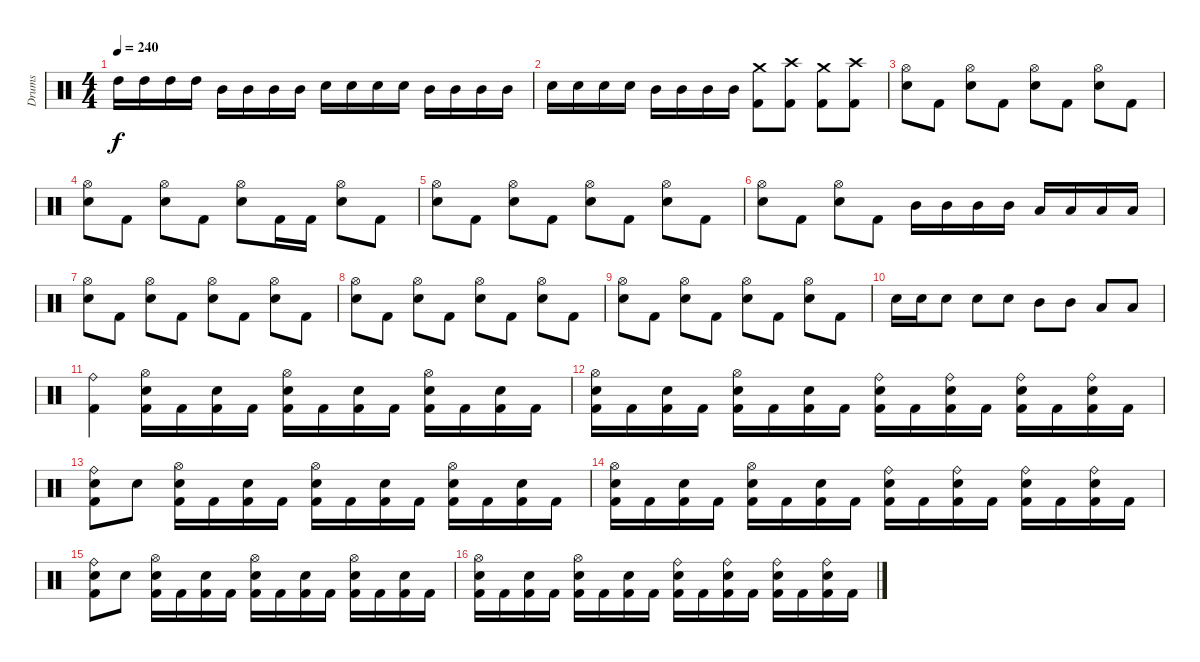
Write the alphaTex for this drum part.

\track ("Drums" "Drums") {instrument percussion}
\staff {score}
\articulation defaults
\ts (4 4)
\tempo 240
\clef neutral
\ks c "High Tom (hit)".16{dy f} "High Tom (hit)".16 "High Tom (hit)".16 "High Tom (hit)".16 "Mid Tom (hit)".16 "Mid Tom (hit)".16 "Mid Tom (hit)".16 "Mid Tom (hit)".16 "Snare (hit) 2".16 "Snare (hit) 2".16 "Snare (hit) 2".16 "Snare (hit) 2".16 "Mid Tom (hit)".16 "Mid Tom (hit)".16 "Mid Tom (hit)".16 "Mid Tom (hit)".16
|
"Snare (hit) 2".16 "Snare (hit) 2".16 "Snare (hit) 2".16 "Snare (hit) 2".16 "Mid Tom (hit)".16 "Mid Tom (hit)".16 "Mid Tom (hit)".16 "Mid Tom (hit)".16 ("Crash medium (hit)" "Kick (hit) 2").8 ("Crash high (hit)" "Kick (hit) 2").8 ("Crash medium (hit)" "Kick (hit) 2").8 ("Crash high (hit)" "Kick (hit) 2").8 |
("Hi-Hat (open)" "Snare (hit) 2").8 "Kick (hit) 2".8 ("Hi-Hat (open)" "Snare (hit) 2").8 "Kick (hit) 2".8 ("Hi-Hat (open)" "Snare (hit) 2").8 "Kick (hit) 2".8 ("Hi-Hat (open)" "Snare (hit) 2").8 "Kick (hit) 2".8 |
("Hi-Hat (open)" "Snare (hit) 2").8 "Kick (hit) 2".8 ("Hi-Hat (open)" "Snare (hit) 2").8 "Kick (hit) 2".8 ("Hi-Hat (open)" "Snare (hit) 2").8 "Kick (hit) 2".16 "Kick (hit) 2".16 ("Hi-Hat (open)" "Snare (hit) 2").8 "Kick (hit) 2".8 |
("Hi-Hat (open)" "Snare (hit) 2").8 "Kick (hit) 2".8 ("Hi-Hat (open)" "Snare (hit) 2").8 "Kick (hit) 2".8 ("Hi-Hat (open)" "Snare (hit) 2").8 "Kick (hit) 2".8 ("Hi-Hat (open)" "Snare (hit) 2").8 "Kick (hit) 2".8 |
("Hi-Hat (open)" "Snare (hit) 2").8 "Kick (hit) 2".8 ("Hi-Hat (open)" "Snare (hit) 2").8 "Kick (hit) 2".8 "Mid Tom (hit)".16 "Mid Tom (hit)".16 "Mid Tom (hit)".16 "Mid Tom (hit)".16 "Low Tom (hit)".16 "Low Tom (hit)".16 "Low Tom (hit)".16 "Low Tom (hit)".16 |
("Hi-Hat (open)" "Snare (hit) 2").8 "Kick (hit) 2".8 ("Hi-Hat (open)" "Snare (hit) 2").8 "Kick (hit) 2".8 ("Hi-Hat (open)" "Snare (hit) 2").8 "Kick (hit) 2".8 ("Hi-Hat (open)" "Snare (hit) 2").8 "Kick (hit) 2".8 |
("Hi-Hat (open)" "Snare (hit) 2").8 "Kick (hit) 2".8 ("Hi-Hat (open)" "Snare (hit) 2").8 "Kick (hit) 2".8 ("Hi-Hat (open)" "Snare (hit) 2").8 "Kick (hit) 2".8 ("Hi-Hat (open)" "Snare (hit) 2").8 "Kick (hit) 2".8 |
("Hi-Hat (open)" "Snare (hit) 2").8 "Kick (hit) 2".8 ("Hi-Hat (open)" "Snare (hit) 2").8 "Kick (hit) 2".8 ("Hi-Hat (open)" "Snare (hit) 2").8 "Kick (hit) 2".8 ("Hi-Hat (open)" "Snare (hit) 2").8 "Kick (hit) 2".8 |
"Snare (hit) 2".16 "Snare (hit) 2".16 "Snare (hit) 2".8 "Snare (hit) 2".8 "Snare (hit) 2".8 "Mid Tom (hit)".8 "Mid Tom (hit)".8 "Low Tom (hit)".8 "Low Tom (hit)".8 |
("Ride (bell)" "Kick (hit) 2").4 ("Hi-Hat (open)" "Snare (hit) 2" "Kick (hit) 2").16 "Kick (hit) 2".16 ("Snare (hit) 2" "Kick (hit) 2").16 "Kick (hit) 2".16 ("Hi-Hat (open)" "Snare (hit) 2" "Kick (hit) 2").16 "Kick (hit) 2".16 ("Snare (hit) 2" "Kick (hit) 2").16 "Kick (hit) 2".16 ("Hi-Hat (open)" "Snare (hit) 2" "Kick (hit) 2").16 "Kick (hit) 2".16 ("Snare (hit) 2" "Kick (hit) 2").16 "Kick (hit) 2".16 |
("Hi-Hat (open)" "Snare (hit) 2" "Kick (hit) 2").16 "Kick (hit) 2".16 ("Snare (hit) 2" "Kick (hit) 2").16 "Kick (hit) 2".16 ("Hi-Hat (open)" "Snare (hit) 2" "Kick (hit) 2").16 "Kick (hit) 2".16 ("Snare (hit) 2" "Kick (hit) 2").16 "Kick (hit) 2".16 ("Ride (bell)" "Snare (hit) 2" "Kick (hit) 2").16 "Kick (hit) 2".16 ("Ride (bell)" "Snare (hit) 2" "Kick (hit) 2").16 "Kick (hit) 2".16 ("Ride (bell)" "Snare (hit) 2" "Kick (hit) 2").16 "Kick (hit) 2".16 ("Ride (bell)" "Snare (hit) 2" "Kick (hit) 2").16 "Kick (hit) 2".16 |
("Ride (bell)" "Snare (hit) 2" "Kick (hit) 2").8 "Snare (hit) 2".8 ("Hi-Hat (open)" "Snare (hit) 2" "Kick (hit) 2").16 "Kick (hit) 2".16 ("Snare (hit) 2" "Kick (hit) 2").16 "Kick (hit) 2".16 ("Hi-Hat (open)" "Snare (hit) 2" "Kick (hit) 2").16 "Kick (hit) 2".16 ("Snare (hit) 2" "Kick (hit) 2").16 "Kick (hit) 2".16 ("Hi-Hat (open)" "Snare (hit) 2" "Kick (hit) 2").16 "Kick (hit) 2".16 ("Snare (hit) 2" "Kick (hit) 2").16 "Kick (hit) 2".16 |
("Hi-Hat (open)" "Snare (hit) 2" "Kick (hit) 2").16 "Kick (hit) 2".16 ("Snare (hit) 2" "Kick (hit) 2").16 "Kick (hit) 2".16 ("Hi-Hat (open)" "Snare (hit) 2" "Kick (hit) 2").16 "Kick (hit) 2".16 ("Snare (hit) 2" "Kick (hit) 2").16 "Kick (hit) 2".16 ("Ride (bell)" "Snare (hit) 2" "Kick (hit) 2").16 "Kick (hit) 2".16 ("Ride (bell)" "Snare (hit) 2" "Kick (hit) 2").16 "Kick (hit) 2".16 ("Ride (bell)" "Snare (hit) 2" "Kick (hit) 2").16 "Kick (hit) 2".16 ("Ride (bell)" "Snare (hit) 2" "Kick (hit) 2").16 "Kick (hit) 2".16 |
("Ride (bell)" "Snare (hit) 2" "Kick (hit) 2").8 "Snare (hit) 2".8 ("Hi-Hat (open)" "Snare (hit) 2" "Kick (hit) 2").16 "Kick (hit) 2".16 ("Snare (hit) 2" "Kick (hit) 2").16 "Kick (hit) 2".16 ("Hi-Hat (open)" "Snare (hit) 2" "Kick (hit) 2").16 "Kick (hit) 2".16 ("Snare (hit) 2" "Kick (hit) 2").16 "Kick (hit) 2".16 ("Hi-Hat (open)" "Snare (hit) 2" "Kick (hit) 2").16 "Kick (hit) 2".16 ("Snare (hit) 2" "Kick (hit) 2").16 "Kick (hit) 2".16 |
("Hi-Hat (open)" "Snare (hit) 2" "Kick (hit) 2").16 "Kick (hit) 2".16 ("Snare (hit) 2" "Kick (hit) 2").16 "Kick (hit) 2".16 ("Hi-Hat (open)" "Snare (hit) 2" "Kick (hit) 2").16 "Kick (hit) 2".16 ("Snare (hit) 2" "Kick (hit) 2").16 "Kick (hit) 2".16 ("Ride (bell)" "Snare (hit) 2" "Kick (hit) 2").16 "Kick (hit) 2".16 ("Ride (bell)" "Snare (hit) 2" "Kick (hit) 2").16 "Kick (hit) 2".16 ("Ride (bell)" "Snare (hit) 2" "Kick (hit) 2").16 "Kick (hit) 2".16 ("Ride (bell)" "Snare (hit) 2" "Kick (hit) 2").16 "Kick (hit) 2".16
